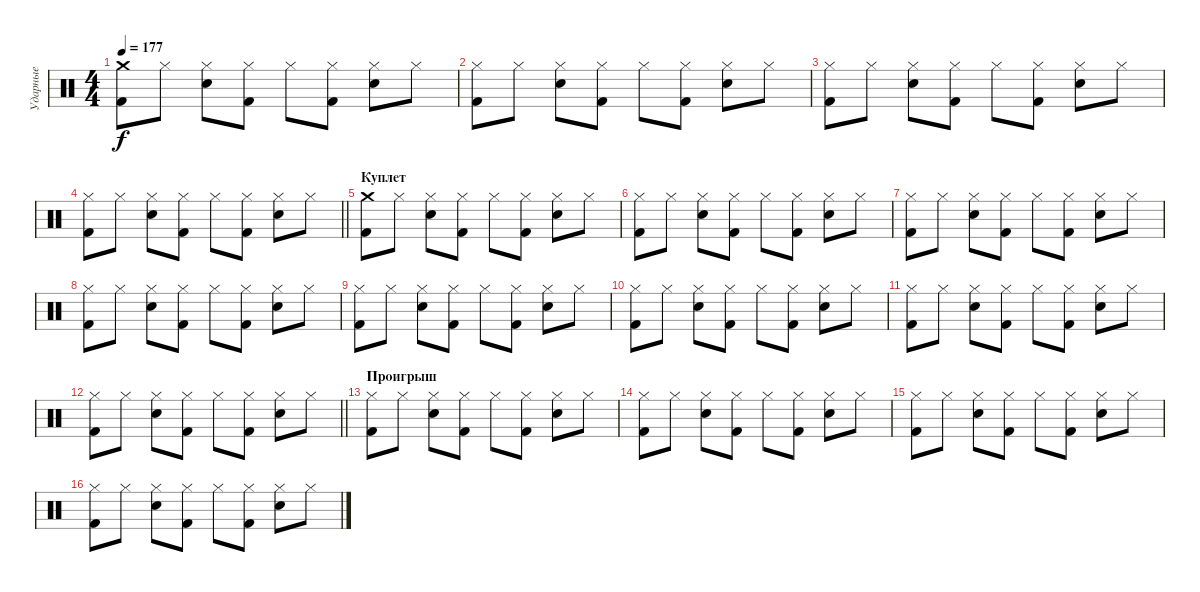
\track ("Ударные" "Ударные") {instrument percussion}
\staff {score}
\articulation defaults
\ts (4 4)
\tempo 177
\clef neutral
\ks c
("Crash medium (hit)" "Kick (hit) 2").8{dy f} "Hi-Hat (closed)".8 ("Hi-Hat (closed)" "Snare (hit) 2").8 ("Hi-Hat (closed)" "Kick (hit) 2").8 "Hi-Hat (closed)".8 ("Hi-Hat (closed)" "Kick (hit) 2").8 ("Hi-Hat (closed)" "Snare (hit) 2").8 "Hi-Hat (closed)".8 |
("Hi-Hat (closed)" "Kick (hit) 2").8 "Hi-Hat (closed)".8 ("Hi-Hat (closed)" "Snare (hit) 2").8 ("Hi-Hat (closed)" "Kick (hit) 2").8 "Hi-Hat (closed)".8 ("Hi-Hat (closed)" "Kick (hit) 2").8 ("Hi-Hat (closed)" "Snare (hit) 2").8 "Hi-Hat (closed)".8 |
("Hi-Hat (closed)" "Kick (hit) 2").8 "Hi-Hat (closed)".8 ("Hi-Hat (closed)" "Snare (hit) 2").8 ("Hi-Hat (closed)" "Kick (hit) 2").8 "Hi-Hat (closed)".8 ("Hi-Hat (closed)" "Kick (hit) 2").8 ("Hi-Hat (closed)" "Snare (hit) 2").8 "Hi-Hat (closed)".8 |
\barLineRight lightlight
("Hi-Hat (closed)" "Kick (hit) 2").8 "Hi-Hat (closed)".8 ("Hi-Hat (closed)" "Snare (hit) 2").8 ("Hi-Hat (closed)" "Kick (hit) 2").8 "Hi-Hat (closed)".8 ("Hi-Hat (closed)" "Kick (hit) 2").8 ("Hi-Hat (closed)" "Snare (hit) 2").8 "Hi-Hat (closed)".8 |
\section ("" "Куплет")
("Crash medium (hit)" "Kick (hit) 2").8 "Hi-Hat (closed)".8 ("Hi-Hat (closed)" "Snare (hit) 2").8 ("Hi-Hat (closed)" "Kick (hit) 2").8 "Hi-Hat (closed)".8 ("Hi-Hat (closed)" "Kick (hit) 2").8 ("Hi-Hat (closed)" "Snare (hit) 2").8 "Hi-Hat (closed)".8 |
("Hi-Hat (closed)" "Kick (hit) 2").8 "Hi-Hat (closed)".8 ("Hi-Hat (closed)" "Snare (hit) 2").8 ("Hi-Hat (closed)" "Kick (hit) 2").8 "Hi-Hat (closed)".8 ("Hi-Hat (closed)" "Kick (hit) 2").8 ("Hi-Hat (closed)" "Snare (hit) 2").8 "Hi-Hat (closed)".8 |
("Hi-Hat (closed)" "Kick (hit) 2").8 "Hi-Hat (closed)".8 ("Hi-Hat (closed)" "Snare (hit) 2").8 ("Hi-Hat (closed)" "Kick (hit) 2").8 "Hi-Hat (closed)".8 ("Hi-Hat (closed)" "Kick (hit) 2").8 ("Hi-Hat (closed)" "Snare (hit) 2").8 "Hi-Hat (closed)".8 |
("Hi-Hat (closed)" "Kick (hit) 2").8 "Hi-Hat (closed)".8 ("Hi-Hat (closed)" "Snare (hit) 2").8 ("Hi-Hat (closed)" "Kick (hit) 2").8 "Hi-Hat (closed)".8 ("Hi-Hat (closed)" "Kick (hit) 2").8 ("Hi-Hat (closed)" "Snare (hit) 2").8 "Hi-Hat (closed)".8 |
("Hi-Hat (closed)" "Kick (hit) 2").8 "Hi-Hat (closed)".8 ("Hi-Hat (closed)" "Snare (hit) 2").8 ("Hi-Hat (closed)" "Kick (hit) 2").8 "Hi-Hat (closed)".8 ("Hi-Hat (closed)" "Kick (hit) 2").8 ("Hi-Hat (closed)" "Snare (hit) 2").8 "Hi-Hat (closed)".8 |
("Hi-Hat (closed)" "Kick (hit) 2").8 "Hi-Hat (closed)".8 ("Hi-Hat (closed)" "Snare (hit) 2").8 ("Hi-Hat (closed)" "Kick (hit) 2").8 "Hi-Hat (closed)".8 ("Hi-Hat (closed)" "Kick (hit) 2").8 ("Hi-Hat (closed)" "Snare (hit) 2").8 "Hi-Hat (closed)".8 |
("Hi-Hat (closed)" "Kick (hit) 2").8 "Hi-Hat (closed)".8 ("Hi-Hat (closed)" "Snare (hit) 2").8 ("Hi-Hat (closed)" "Kick (hit) 2").8 "Hi-Hat (closed)".8 ("Hi-Hat (closed)" "Kick (hit) 2").8 ("Hi-Hat (closed)" "Snare (hit) 2").8 "Hi-Hat (closed)".8 |
\barLineRight lightlight
("Hi-Hat (closed)" "Kick (hit) 2").8 "Hi-Hat (closed)".8 ("Hi-Hat (closed)" "Snare (hit) 2").8 ("Hi-Hat (closed)" "Kick (hit) 2").8 "Hi-Hat (closed)".8 ("Hi-Hat (closed)" "Kick (hit) 2").8 ("Hi-Hat (closed)" "Snare (hit) 2").8 "Hi-Hat (closed)".8 |
\section ("" "Проигрыш")
("Hi-Hat (closed)" "Kick (hit) 2").8 "Hi-Hat (closed)".8 ("Hi-Hat (closed)" "Snare (hit) 2").8 ("Hi-Hat (closed)" "Kick (hit) 2").8 "Hi-Hat (closed)".8 ("Hi-Hat (closed)" "Kick (hit) 2").8 ("Hi-Hat (closed)" "Snare (hit) 2").8 "Hi-Hat (closed)".8 |
("Hi-Hat (closed)" "Kick (hit) 2").8 "Hi-Hat (closed)".8 ("Hi-Hat (closed)" "Snare (hit) 2").8 ("Hi-Hat (closed)" "Kick (hit) 2").8 "Hi-Hat (closed)".8 ("Hi-Hat (closed)" "Kick (hit) 2").8 ("Hi-Hat (closed)" "Snare (hit) 2").8 "Hi-Hat (closed)".8 |
("Hi-Hat (closed)" "Kick (hit) 2").8 "Hi-Hat (closed)".8 ("Hi-Hat (closed)" "Snare (hit) 2").8 ("Hi-Hat (closed)" "Kick (hit) 2").8 "Hi-Hat (closed)".8 ("Hi-Hat (closed)" "Kick (hit) 2").8 ("Hi-Hat (closed)" "Snare (hit) 2").8 "Hi-Hat (closed)".8 |
("Hi-Hat (closed)" "Kick (hit) 2").8 "Hi-Hat (closed)".8 ("Hi-Hat (closed)" "Snare (hit) 2").8 ("Hi-Hat (closed)" "Kick (hit) 2").8 "Hi-Hat (closed)".8 ("Hi-Hat (closed)" "Kick (hit) 2").8 ("Hi-Hat (closed)" "Snare (hit) 2").8 "Hi-Hat (closed)".8
